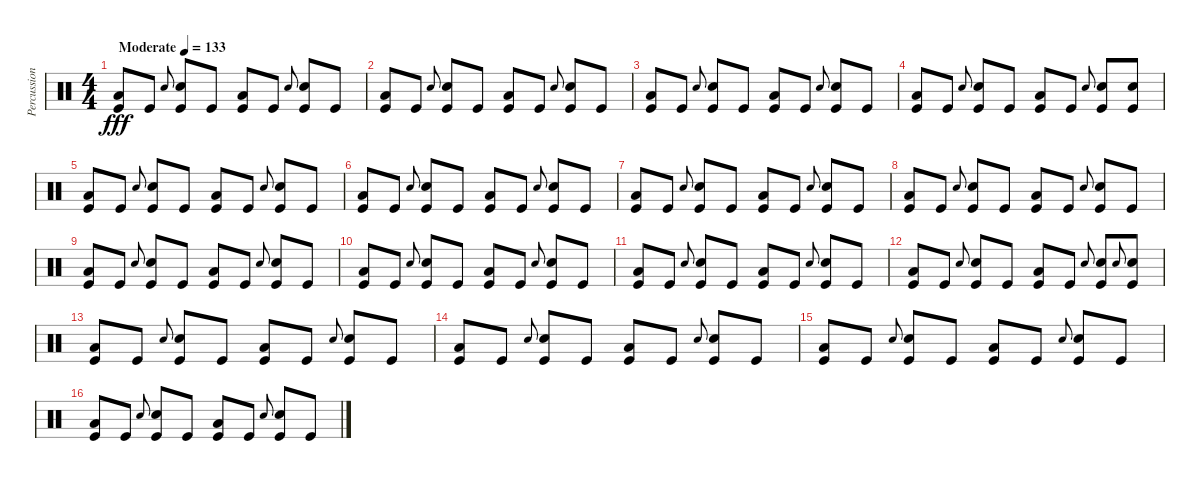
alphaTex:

\track ("Percussion" "Percussion") {instrument percussion}
\staff {score}
\articulation defaults
\ts (4 4)
\tempo (133 "Moderate")
\clef neutral
\ks c
("Low Floor Tom (hit)" "Kick (hit)").8{dy fff} "Kick (hit)".8 "Snare (hit) 2".8{gr onbeat} ("Snare (hit) 2" "Kick (hit)").8 "Kick (hit)".8 ("Low Floor Tom (hit)" "Kick (hit)").8 "Kick (hit)".8 "Snare (hit) 2".8{gr onbeat} ("Snare (hit) 2" "Kick (hit)").8 "Kick (hit)".8 |
("Low Floor Tom (hit)" "Kick (hit)").8 "Kick (hit)".8 "Snare (hit) 2".8{gr onbeat} ("Snare (hit) 2" "Kick (hit)").8 "Kick (hit)".8 ("Low Floor Tom (hit)" "Kick (hit)").8 "Kick (hit)".8 "Snare (hit) 2".8{gr onbeat} ("Snare (hit) 2" "Kick (hit)").8 "Kick (hit)".8 |
("Low Floor Tom (hit)" "Kick (hit)").8 "Kick (hit)".8 "Snare (hit) 2".8{gr onbeat} ("Snare (hit) 2" "Kick (hit)").8 "Kick (hit)".8 ("Low Floor Tom (hit)" "Kick (hit)").8 "Kick (hit)".8 "Snare (hit) 2".8{gr onbeat} ("Snare (hit) 2" "Kick (hit)").8 "Kick (hit)".8 |
("Low Floor Tom (hit)" "Kick (hit)").8 "Kick (hit)".8 "Snare (hit) 2".8{gr onbeat} ("Snare (hit) 2" "Kick (hit)").8 "Kick (hit)".8 ("Low Floor Tom (hit)" "Kick (hit)").8 "Kick (hit)".8 "Snare (hit) 2".8{gr onbeat} ("Snare (hit) 2" "Kick (hit)").8 ("Snare (hit) 2" "Kick (hit)").8 |
("Low Floor Tom (hit)" "Kick (hit)").8 "Kick (hit)".8 "Snare (hit) 2".8{gr onbeat} ("Snare (hit) 2" "Kick (hit)").8 "Kick (hit)".8 ("Low Floor Tom (hit)" "Kick (hit)").8 "Kick (hit)".8 "Snare (hit) 2".8{gr onbeat} ("Snare (hit) 2" "Kick (hit)").8 "Kick (hit)".8 |
("Low Floor Tom (hit)" "Kick (hit)").8 "Kick (hit)".8 "Snare (hit) 2".8{gr onbeat} ("Snare (hit) 2" "Kick (hit)").8 "Kick (hit)".8 ("Low Floor Tom (hit)" "Kick (hit)").8 "Kick (hit)".8 "Snare (hit) 2".8{gr onbeat} ("Snare (hit) 2" "Kick (hit)").8 "Kick (hit)".8 |
("Low Floor Tom (hit)" "Kick (hit)").8 "Kick (hit)".8 "Snare (hit) 2".8{gr onbeat} ("Snare (hit) 2" "Kick (hit)").8 "Kick (hit)".8 ("Low Floor Tom (hit)" "Kick (hit)").8 "Kick (hit)".8 "Snare (hit) 2".8{gr onbeat} ("Snare (hit) 2" "Kick (hit)").8 "Kick (hit)".8 |
("Low Floor Tom (hit)" "Kick (hit)").8 "Kick (hit)".8 "Snare (hit) 2".8{gr onbeat} ("Snare (hit) 2" "Kick (hit)").8 "Kick (hit)".8 ("Low Floor Tom (hit)" "Kick (hit)").8 "Kick (hit)".8 "Snare (hit) 2".8{gr onbeat} ("Snare (hit) 2" "Kick (hit)").8 "Kick (hit)".8 |
("Low Floor Tom (hit)" "Kick (hit)").8 "Kick (hit)".8 "Snare (hit) 2".8{gr onbeat} ("Snare (hit) 2" "Kick (hit)").8 "Kick (hit)".8 ("Low Floor Tom (hit)" "Kick (hit)").8 "Kick (hit)".8 "Snare (hit) 2".8{gr onbeat} ("Snare (hit) 2" "Kick (hit)").8 "Kick (hit)".8 |
("Low Floor Tom (hit)" "Kick (hit)").8 "Kick (hit)".8 "Snare (hit) 2".8{gr onbeat} ("Snare (hit) 2" "Kick (hit)").8 "Kick (hit)".8 ("Low Floor Tom (hit)" "Kick (hit)").8 "Kick (hit)".8 "Snare (hit) 2".8{gr onbeat} ("Snare (hit) 2" "Kick (hit)").8 "Kick (hit)".8 |
("Low Floor Tom (hit)" "Kick (hit)").8 "Kick (hit)".8 "Snare (hit) 2".8{gr onbeat} ("Snare (hit) 2" "Kick (hit)").8 "Kick (hit)".8 ("Low Floor Tom (hit)" "Kick (hit)").8 "Kick (hit)".8 "Snare (hit) 2".8{gr onbeat} ("Snare (hit) 2" "Kick (hit)").8 "Kick (hit)".8 |
("Low Floor Tom (hit)" "Kick (hit)").8 "Kick (hit)".8 "Snare (hit) 2".8{gr onbeat} ("Snare (hit) 2" "Kick (hit)").8 "Kick (hit)".8 ("Low Floor Tom (hit)" "Kick (hit)").8 "Kick (hit)".8 "Snare (hit) 2".8{gr onbeat} ("Snare (hit) 2" "Kick (hit)").8 "Snare (hit) 2".8{gr onbeat} ("Snare (hit) 2" "Kick (hit)").8 |
("Low Floor Tom (hit)" "Kick (hit)").8 "Kick (hit)".8 "Snare (hit) 2".8{gr onbeat} ("Snare (hit) 2" "Kick (hit)").8 "Kick (hit)".8 ("Low Floor Tom (hit)" "Kick (hit)").8 "Kick (hit)".8 "Snare (hit) 2".8{gr onbeat} ("Snare (hit) 2" "Kick (hit)").8 "Kick (hit)".8 |
("Low Floor Tom (hit)" "Kick (hit)").8 "Kick (hit)".8 "Snare (hit) 2".8{gr onbeat} ("Snare (hit) 2" "Kick (hit)").8 "Kick (hit)".8 ("Low Floor Tom (hit)" "Kick (hit)").8 "Kick (hit)".8 "Snare (hit) 2".8{gr onbeat} ("Snare (hit) 2" "Kick (hit)").8 "Kick (hit)".8 |
("Low Floor Tom (hit)" "Kick (hit)").8 "Kick (hit)".8 "Snare (hit) 2".8{gr onbeat} ("Snare (hit) 2" "Kick (hit)").8 "Kick (hit)".8 ("Low Floor Tom (hit)" "Kick (hit)").8 "Kick (hit)".8 "Snare (hit) 2".8{gr onbeat} ("Snare (hit) 2" "Kick (hit)").8 "Kick (hit)".8 |
("Low Floor Tom (hit)" "Kick (hit)").8 "Kick (hit)".8 "Snare (hit) 2".8{gr onbeat} ("Snare (hit) 2" "Kick (hit)").8 "Kick (hit)".8 ("Low Floor Tom (hit)" "Kick (hit)").8 "Kick (hit)".8 "Snare (hit) 2".8{gr onbeat} ("Snare (hit) 2" "Kick (hit)").8 "Kick (hit)".8
